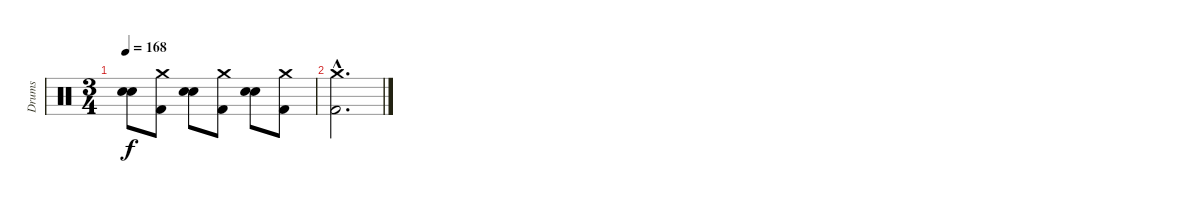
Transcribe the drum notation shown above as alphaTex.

\track ("Drums" "Drums") {instrument percussion}
\staff {score}
\articulation defaults
\ts (3 4)
\tempo 168
\clef neutral
\ks c
("Electric Snare (hit)" "Electric Snare (hit)").8{bu 240 dy f} ("Crash medium (hit)" "Kick (hit) 2").8 ("Electric Snare (hit)" "Electric Snare (hit)").8{bu 240} ("Crash medium (hit)" "Kick (hit) 2").8 ("Electric Snare (hit)" "Electric Snare (hit)").8{bu 240} ("Crash medium (hit)" "Kick (hit) 2").8 |
("Crash medium (hit)"{hac} "Kick (hit) 2"{hac}).2{d}
